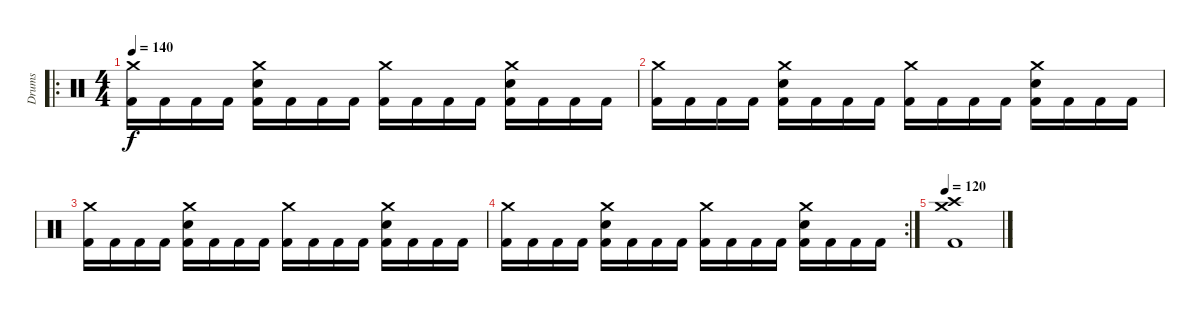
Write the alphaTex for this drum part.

\track ("Drums" "Drums") {instrument percussion}
\staff {score}
\articulation defaults
\ro
\ts (4 4)
\tempo 140
\clef neutral
\ks c
("Crash medium (hit)" "Kick (hit) 2").16{dy f} "Kick (hit) 2".16 "Kick (hit) 2".16 "Kick (hit) 2".16 ("Crash medium (hit)" "Electric Snare (hit)" "Kick (hit) 2").16 "Kick (hit) 2".16 "Kick (hit) 2".16 "Kick (hit) 2".16 ("Crash medium (hit)" "Kick (hit) 2").16 "Kick (hit) 2".16 "Kick (hit) 2".16 "Kick (hit) 2".16 ("Crash medium (hit)" "Electric Snare (hit)" "Kick (hit) 2").16 "Kick (hit) 2".16 "Kick (hit) 2".16 "Kick (hit) 2".16 |
("Crash medium (hit)" "Kick (hit) 2").16 "Kick (hit) 2".16 "Kick (hit) 2".16 "Kick (hit) 2".16 ("Crash medium (hit)" "Electric Snare (hit)" "Kick (hit) 2").16 "Kick (hit) 2".16 "Kick (hit) 2".16 "Kick (hit) 2".16 ("Crash medium (hit)" "Kick (hit) 2").16 "Kick (hit) 2".16 "Kick (hit) 2".16 "Kick (hit) 2".16 ("Crash medium (hit)" "Electric Snare (hit)" "Kick (hit) 2").16 "Kick (hit) 2".16 "Kick (hit) 2".16 "Kick (hit) 2".16 |
("Crash medium (hit)" "Kick (hit) 2").16 "Kick (hit) 2".16 "Kick (hit) 2".16 "Kick (hit) 2".16 ("Crash medium (hit)" "Electric Snare (hit)" "Kick (hit) 2").16 "Kick (hit) 2".16 "Kick (hit) 2".16 "Kick (hit) 2".16 ("Crash medium (hit)" "Kick (hit) 2").16 "Kick (hit) 2".16 "Kick (hit) 2".16 "Kick (hit) 2".16 ("Crash medium (hit)" "Electric Snare (hit)" "Kick (hit) 2").16 "Kick (hit) 2".16 "Kick (hit) 2".16 "Kick (hit) 2".16 |
\rc 2
("Crash medium (hit)" "Kick (hit) 2").16 "Kick (hit) 2".16 "Kick (hit) 2".16 "Kick (hit) 2".16 ("Crash medium (hit)" "Electric Snare (hit)" "Kick (hit) 2").16 "Kick (hit) 2".16 "Kick (hit) 2".16 "Kick (hit) 2".16 ("Crash medium (hit)" "Kick (hit) 2").16 "Kick (hit) 2".16 "Kick (hit) 2".16 "Kick (hit) 2".16 ("Crash medium (hit)" "Electric Snare (hit)" "Kick (hit) 2").16 "Kick (hit) 2".16 "Kick (hit) 2".16 "Kick (hit) 2".16 |
\tempo 120
("Crash high (hit)" "Crash medium (hit)" "Kick (hit) 2").1
